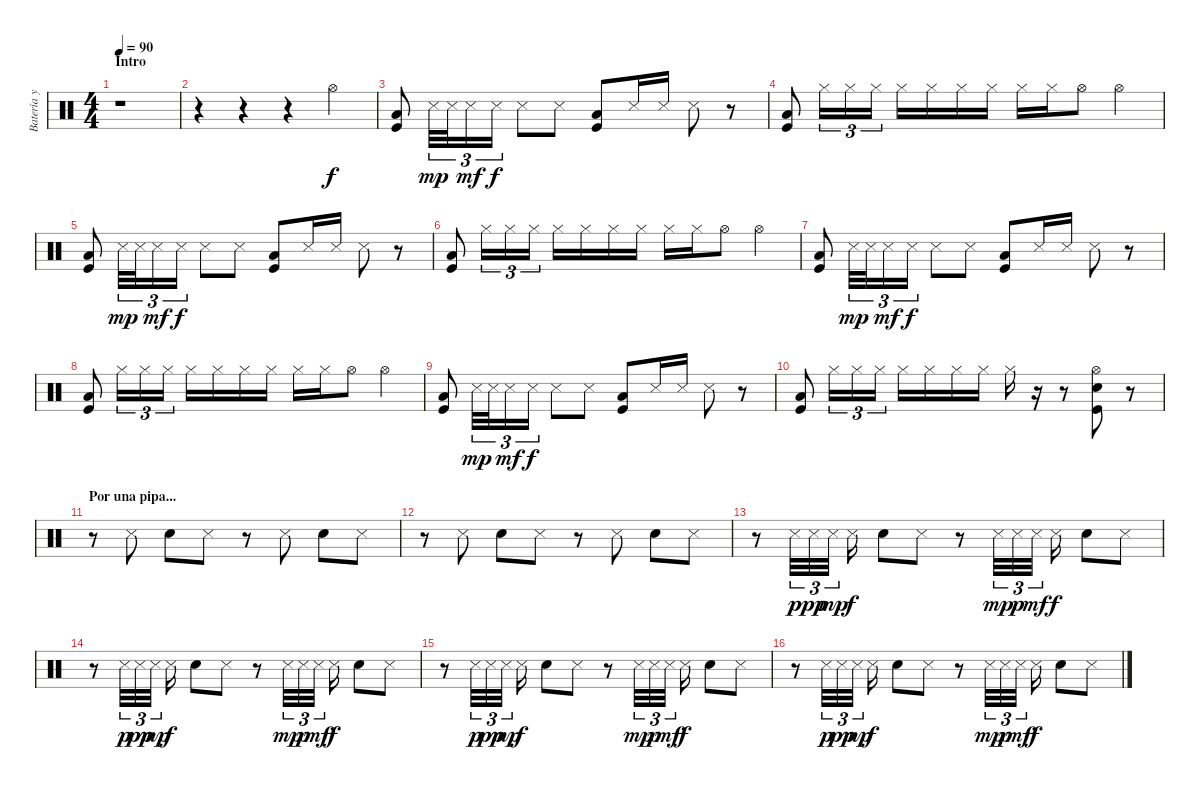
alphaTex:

\track ("Batería y risa" "Batería y ") {instrument percussion}
\staff {score}
\articulation defaults
\ts (4 4)
\section ("" "Intro")
\tempo 90
\clef neutral
\ks c
r.1{dy f} |
r.4 r.4 r.4 "Hi-Hat (open)".4 |
("Kick (hit)" "Low Floor Tom (hit)").8 "Snare (side stick) 3".32{tu (3 2) dy mp} "Snare (side stick) 3".32{tu (3 2)} "Snare (side stick) 3".16{tu (3 2) dy mf} "Snare (side stick) 3".16{tu (3 2) dy f} "Snare (side stick) 3".8 "Snare (side stick) 3".8 ("Kick (hit)" "Low Floor Tom (hit)").8 "Snare (side stick) 3".16 "Snare (side stick) 3".16 "Snare (side stick) 3".8 r.8 |
("Kick (hit)" "Low Floor Tom (hit)").8 "Hi-Hat (closed)".16{tu (3 2)} "Hi-Hat (closed)".16{tu (3 2)} "Hi-Hat (closed)".16{tu (3 2)} "Hi-Hat (closed)".16 "Hi-Hat (closed)".16 "Hi-Hat (closed)".16 "Hi-Hat (closed)".16 "Hi-Hat (closed)".16 "Hi-Hat (closed)".16 "Hi-Hat (open)".8 "Hi-Hat (open)".4 |
("Kick (hit)" "Low Floor Tom (hit)").8 "Snare (side stick) 3".32{tu (3 2) dy mp} "Snare (side stick) 3".32{tu (3 2)} "Snare (side stick) 3".16{tu (3 2) dy mf} "Snare (side stick) 3".16{tu (3 2) dy f} "Snare (side stick) 3".8 "Snare (side stick) 3".8 ("Kick (hit)" "Low Floor Tom (hit)").8 "Snare (side stick) 3".16 "Snare (side stick) 3".16 "Snare (side stick) 3".8 r.8 |
("Kick (hit)" "Low Floor Tom (hit)").8 "Hi-Hat (closed)".16{tu (3 2)} "Hi-Hat (closed)".16{tu (3 2)} "Hi-Hat (closed)".16{tu (3 2)} "Hi-Hat (closed)".16 "Hi-Hat (closed)".16 "Hi-Hat (closed)".16 "Hi-Hat (closed)".16 "Hi-Hat (closed)".16 "Hi-Hat (closed)".16 "Hi-Hat (open)".8 "Hi-Hat (open)".4 |
("Kick (hit)" "Low Floor Tom (hit)").8 "Snare (side stick) 3".32{tu (3 2) dy mp} "Snare (side stick) 3".32{tu (3 2)} "Snare (side stick) 3".16{tu (3 2) dy mf} "Snare (side stick) 3".16{tu (3 2) dy f} "Snare (side stick) 3".8 "Snare (side stick) 3".8 ("Kick (hit)" "Low Floor Tom (hit)").8 "Snare (side stick) 3".16 "Snare (side stick) 3".16 "Snare (side stick) 3".8 r.8 |
("Kick (hit)" "Low Floor Tom (hit)").8 "Hi-Hat (closed)".16{tu (3 2)} "Hi-Hat (closed)".16{tu (3 2)} "Hi-Hat (closed)".16{tu (3 2)} "Hi-Hat (closed)".16 "Hi-Hat (closed)".16 "Hi-Hat (closed)".16 "Hi-Hat (closed)".16 "Hi-Hat (closed)".16 "Hi-Hat (closed)".16 "Hi-Hat (open)".8 "Hi-Hat (open)".4 |
("Kick (hit)" "Low Floor Tom (hit)").8 "Snare (side stick) 3".32{tu (3 2) dy mp} "Snare (side stick) 3".32{tu (3 2)} "Snare (side stick) 3".16{tu (3 2) dy mf} "Snare (side stick) 3".16{tu (3 2) dy f} "Snare (side stick) 3".8 "Snare (side stick) 3".8 ("Kick (hit)" "Low Floor Tom (hit)").8 "Snare (side stick) 3".16 "Snare (side stick) 3".16 "Snare (side stick) 3".8 r.8 |
("Kick (hit)" "Low Floor Tom (hit)").8 "Hi-Hat (closed)".16{tu (3 2)} "Hi-Hat (closed)".16{tu (3 2)} "Hi-Hat (closed)".16{tu (3 2)} "Hi-Hat (closed)".16 "Hi-Hat (closed)".16 "Hi-Hat (closed)".16 "Hi-Hat (closed)".16 "Hi-Hat (closed)".16 r.16 r.8 ("Kick (hit)" "Electric Snare (hit)" "Hi-Hat (open)").8 r.8 |
\section ("" "Por una pipa...")
r.8 "Snare (side stick) 3".8 "Snare (hit) 2".8 "Snare (side stick) 3".8 r.8 "Snare (side stick) 3".8 "Snare (hit) 2".8 "Snare (side stick) 3".8 |
r.8 "Snare (side stick) 3".8 "Snare (hit) 2".8 "Snare (side stick) 3".8 r.8 "Snare (side stick) 3".8 "Snare (hit) 2".8 "Snare (side stick) 3".8 |
r.8 "Snare (side stick) 3".32{tu (3 2) dy p} "Snare (side stick) 3".32{tu (3 2) dy pp} "Snare (side stick) 3".32{tu (3 2) dy mp} "Snare (side stick) 3".16{dy f} "Snare (hit) 2".8 "Snare (side stick) 3".8 r.8 "Snare (side stick) 3".32{tu (3 2) dy mp} "Snare (side stick) 3".32{tu (3 2) dy p} "Snare (side stick) 3".32{tu (3 2) dy mf} "Snare (side stick) 3".16{dy f} "Snare (hit) 2".8 "Snare (side stick) 3".8 |
r.8 "Snare (side stick) 3".32{tu (3 2) dy p} "Snare (side stick) 3".32{tu (3 2) dy pp} "Snare (side stick) 3".32{tu (3 2) dy mp} "Snare (side stick) 3".16{dy f} "Snare (hit) 2".8 "Snare (side stick) 3".8 r.8 "Snare (side stick) 3".32{tu (3 2) dy mp} "Snare (side stick) 3".32{tu (3 2) dy p} "Snare (side stick) 3".32{tu (3 2) dy mf} "Snare (side stick) 3".16{dy f} "Snare (hit) 2".8 "Snare (side stick) 3".8 |
r.8 "Snare (side stick) 3".32{tu (3 2) dy p} "Snare (side stick) 3".32{tu (3 2) dy pp} "Snare (side stick) 3".32{tu (3 2) dy mp} "Snare (side stick) 3".16{dy f} "Snare (hit) 2".8 "Snare (side stick) 3".8 r.8 "Snare (side stick) 3".32{tu (3 2) dy mp} "Snare (side stick) 3".32{tu (3 2) dy p} "Snare (side stick) 3".32{tu (3 2) dy mf} "Snare (side stick) 3".16{dy f} "Snare (hit) 2".8 "Snare (side stick) 3".8 |
r.8 "Snare (side stick) 3".32{tu (3 2) dy p} "Snare (side stick) 3".32{tu (3 2) dy pp} "Snare (side stick) 3".32{tu (3 2) dy mp} "Snare (side stick) 3".16{dy f} "Snare (hit) 2".8 "Snare (side stick) 3".8 r.8 "Snare (side stick) 3".32{tu (3 2) dy mp} "Snare (side stick) 3".32{tu (3 2) dy p} "Snare (side stick) 3".32{tu (3 2) dy mf} "Snare (side stick) 3".16{dy f} "Snare (hit) 2".8 "Snare (side stick) 3".8
